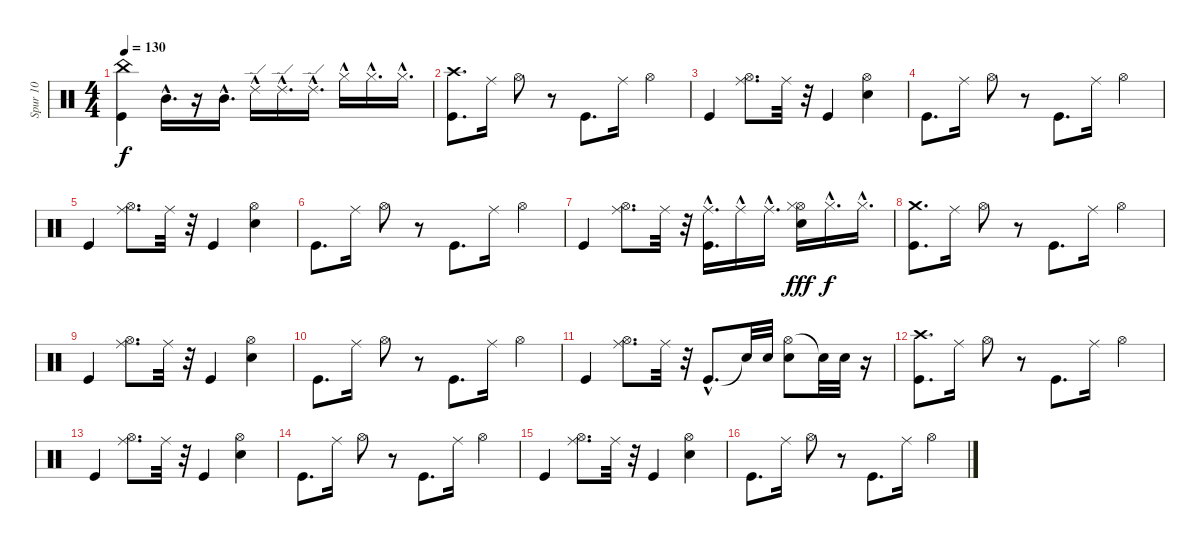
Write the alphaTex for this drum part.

\track ("Spur 10" "Spur 10") {instrument percussion}
\staff {score}
\articulation defaults
\ts (4 4)
\tempo 130
\clef neutral
\ks c
("China (hit)" "Kick (hit)").4{dy f} "Mid Tom (hit)"{hac}.16{d} r.16 "Mid Tom (hit)"{hac}.16{d} "Ride (edge) 2"{hac}.16 "Ride (edge) 2"{hac}.16{d} "Ride (edge) 2"{hac}.16{d} "Hi-Hat (closed)"{hac}.16 "Hi-Hat (closed)"{hac}.16{d} "Hi-Hat (closed)"{hac}.16{d} |
("Crash high (hit)" "Kick (hit)").8{d} "Ride (middle)".16 "Hi-Hat (open)".8 r.8 "Kick (hit)".8{d} "Ride (middle)".16 "Hi-Hat (open)".4 |
"Kick (hit)".4 ("Hi-Hat (open)" "Ride (middle)").8{d} "Ride (middle)".32 r.32 "Kick (hit)".4 ("Hi-Hat (open)" "Electric Snare (hit)").4 |
"Kick (hit)".8{d} "Ride (middle)".16 "Hi-Hat (open)".8 r.8 "Kick (hit)".8{d} "Ride (middle)".16 "Hi-Hat (open)".4 |
"Kick (hit)".4 ("Hi-Hat (open)" "Ride (middle)").8{d} "Ride (middle)".32 r.32 "Kick (hit)".4 ("Hi-Hat (open)" "Electric Snare (hit)").4 |
"Kick (hit)".8{d} "Ride (middle)".16 "Hi-Hat (open)".8 r.8 "Kick (hit)".8{d} "Ride (middle)".16 "Hi-Hat (open)".4 |
"Kick (hit)".4 ("Hi-Hat (open)" "Ride (middle)").8{d} "Ride (middle)".32 r.32 ("Kick (hit)" "Ride (middle)"{hac}).16{d} "Ride (middle)"{hac}.16 "Ride (middle)"{hac}.16{d} ("Hi-Hat (open)" "Hi-Hat (closed)" "Electric Snare (hit)").16{dy fff} "Hi-Hat (closed)"{hac}.16{d dy f} "Hi-Hat (closed)"{hac}.16{d} |
("Kick (hit)" "Crash medium (hit)").8{d} "Ride (middle)".16 "Hi-Hat (open)".8 r.8 "Kick (hit)".8{d} "Ride (middle)".16 "Hi-Hat (open)".4 |
"Kick (hit)".4 ("Hi-Hat (open)" "Ride (middle)").8{d} "Ride (middle)".32 r.32 "Kick (hit)".4 ("Hi-Hat (open)" "Electric Snare (hit)").4 |
"Kick (hit)".8{d} "Ride (middle)".16 "Hi-Hat (open)".8 r.8 "Kick (hit)".8{d} "Ride (middle)".16 "Hi-Hat (open)".4 |
"Kick (hit)".4 ("Hi-Hat (open)" "Ride (middle)").8{d} "Ride (middle)".32 r.32 "Kick (hit)"{hac}.8{d} "Snare (hit)"{t}.32 "Electric Snare (hit)".32 ("Hi-Hat (open)" "Electric Snare (hit)").8 "Snare (hit)"{t}.32 "Electric Snare (hit)".32 r.16 |
("Crash high (hit)" "Kick (hit)").8{d} "Ride (middle)".16 "Hi-Hat (open)".8 r.8 "Kick (hit)".8{d} "Ride (middle)".16 "Hi-Hat (open)".4 |
"Kick (hit)".4 ("Hi-Hat (open)" "Ride (middle)").8{d} "Ride (middle)".32 r.32 "Kick (hit)".4 ("Hi-Hat (open)" "Electric Snare (hit)").4 |
"Kick (hit)".8{d} "Ride (middle)".16 "Hi-Hat (open)".8 r.8 "Kick (hit)".8{d} "Ride (middle)".16 "Hi-Hat (open)".4 |
"Kick (hit)".4 ("Hi-Hat (open)" "Ride (middle)").8{d} "Ride (middle)".32 r.32 "Kick (hit)".4 ("Hi-Hat (open)" "Electric Snare (hit)").4 |
"Kick (hit)".8{d} "Ride (middle)".16 "Hi-Hat (open)".8 r.8 "Kick (hit)".8{d} "Ride (middle)".16 "Hi-Hat (open)".4
